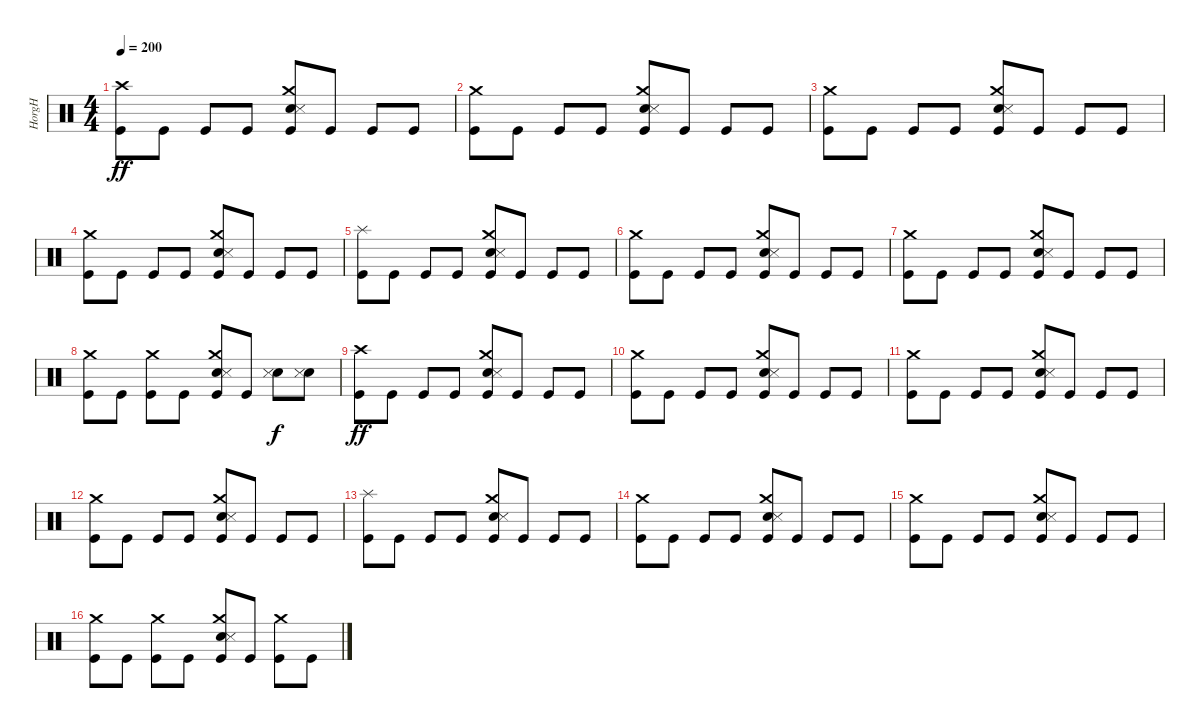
\track ("HorgH" "HorgH") {instrument percussion}
\staff {score}
\articulation defaults
\ts (4 4)
\section ("" "")
\tempo 200
\clef neutral
\ks c
("Crash high (hit)" "Kick (hit)").8{dy ff} "Kick (hit)".8 "Kick (hit)".8 "Kick (hit)".8 ("Crash medium (hit)" "Electric Snare (hit)" "Snare (side stick) 3" "Kick (hit)").8 "Kick (hit)".8 "Kick (hit)".8 "Kick (hit)".8 |
("Crash medium (hit)" "Kick (hit)").8 "Kick (hit)".8 "Kick (hit)".8 "Kick (hit)".8 ("Crash medium (hit)" "Electric Snare (hit)" "Snare (side stick) 3" "Kick (hit)").8 "Kick (hit)".8 "Kick (hit)".8 "Kick (hit)".8 |
("Crash medium (hit)" "Kick (hit)").8 "Kick (hit)".8 "Kick (hit)".8 "Kick (hit)".8 ("Crash medium (hit)" "Electric Snare (hit)" "Snare (side stick) 3" "Kick (hit)").8 "Kick (hit)".8 "Kick (hit)".8 "Kick (hit)".8 |
("Crash medium (hit)" "Kick (hit)").8 "Kick (hit)".8 "Kick (hit)".8 "Kick (hit)".8 ("Crash medium (hit)" "Electric Snare (hit)" "Snare (side stick) 3" "Kick (hit)").8 "Kick (hit)".8 "Kick (hit)".8 "Kick (hit)".8 |
("Splash (hit)" "Kick (hit)").8 "Kick (hit)".8 "Kick (hit)".8 "Kick (hit)".8 ("Crash medium (hit)" "Electric Snare (hit)" "Snare (side stick) 3" "Kick (hit)").8 "Kick (hit)".8 "Kick (hit)".8 "Kick (hit)".8 |
("Crash medium (hit)" "Kick (hit)").8 "Kick (hit)".8 "Kick (hit)".8 "Kick (hit)".8 ("Crash medium (hit)" "Electric Snare (hit)" "Snare (side stick) 3" "Kick (hit)").8 "Kick (hit)".8 "Kick (hit)".8 "Kick (hit)".8 |
("Crash medium (hit)" "Kick (hit)").8 "Kick (hit)".8 "Kick (hit)".8 "Kick (hit)".8 ("Crash medium (hit)" "Electric Snare (hit)" "Snare (side stick) 3" "Kick (hit)").8 "Kick (hit)".8 "Kick (hit)".8 "Kick (hit)".8 |
("Crash medium (hit)" "Kick (hit)").8 "Kick (hit)".8 ("Crash medium (hit)" "Kick (hit)").8 "Kick (hit)".8 ("Crash medium (hit)" "Electric Snare (hit)" "Snare (side stick) 3" "Kick (hit)").8 "Kick (hit)".8 ("Electric Snare (hit)" "Snare (side stick) 3").8{dy f} ("Electric Snare (hit)" "Snare (side stick) 3").8 |
("Crash high (hit)" "Kick (hit)").8{dy ff} "Kick (hit)".8 "Kick (hit)".8 "Kick (hit)".8 ("Crash medium (hit)" "Electric Snare (hit)" "Snare (side stick) 3" "Kick (hit)").8 "Kick (hit)".8 "Kick (hit)".8 "Kick (hit)".8 |
("Crash medium (hit)" "Kick (hit)").8 "Kick (hit)".8 "Kick (hit)".8 "Kick (hit)".8 ("Crash medium (hit)" "Electric Snare (hit)" "Snare (side stick) 3" "Kick (hit)").8 "Kick (hit)".8 "Kick (hit)".8 "Kick (hit)".8 |
("Crash medium (hit)" "Kick (hit)").8 "Kick (hit)".8 "Kick (hit)".8 "Kick (hit)".8 ("Crash medium (hit)" "Electric Snare (hit)" "Snare (side stick) 3" "Kick (hit)").8 "Kick (hit)".8 "Kick (hit)".8 "Kick (hit)".8 |
("Crash medium (hit)" "Kick (hit)").8 "Kick (hit)".8 "Kick (hit)".8 "Kick (hit)".8 ("Crash medium (hit)" "Electric Snare (hit)" "Snare (side stick) 3" "Kick (hit)").8 "Kick (hit)".8 "Kick (hit)".8 "Kick (hit)".8 |
("Splash (hit)" "Kick (hit)").8 "Kick (hit)".8 "Kick (hit)".8 "Kick (hit)".8 ("Crash medium (hit)" "Electric Snare (hit)" "Snare (side stick) 3" "Kick (hit)").8 "Kick (hit)".8 "Kick (hit)".8 "Kick (hit)".8 |
("Crash medium (hit)" "Kick (hit)").8 "Kick (hit)".8 "Kick (hit)".8 "Kick (hit)".8 ("Crash medium (hit)" "Electric Snare (hit)" "Snare (side stick) 3" "Kick (hit)").8 "Kick (hit)".8 "Kick (hit)".8 "Kick (hit)".8 |
("Crash medium (hit)" "Kick (hit)").8 "Kick (hit)".8 "Kick (hit)".8 "Kick (hit)".8 ("Crash medium (hit)" "Electric Snare (hit)" "Snare (side stick) 3" "Kick (hit)").8 "Kick (hit)".8 "Kick (hit)".8 "Kick (hit)".8 |
("Crash medium (hit)" "Kick (hit)").8 "Kick (hit)".8 ("Crash medium (hit)" "Kick (hit)").8 "Kick (hit)".8 ("Crash medium (hit)" "Electric Snare (hit)" "Snare (side stick) 3" "Kick (hit)").8 "Kick (hit)".8 ("Crash medium (hit)" "Kick (hit)").8 "Kick (hit)".8
